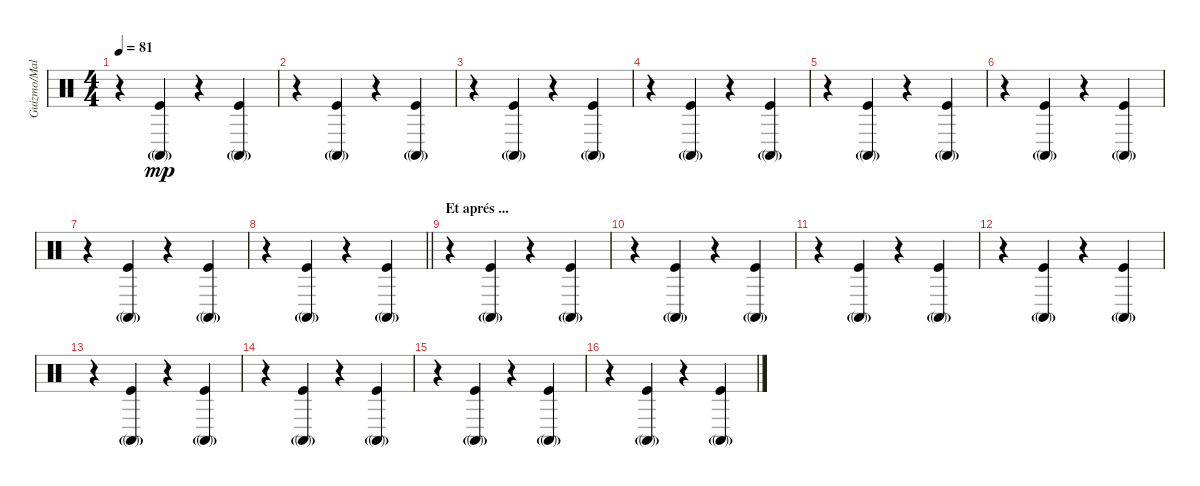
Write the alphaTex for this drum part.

\track ("Guizmo/Mali" "Guizmo/Mal") {instrument percussion}
\staff {score}
\articulation defaults
\ts (4 4)
\tempo 81
\clef neutral
\ks c
r.4{dy mp} ("Kick (hit)" "Conga high (mute)"{g}).4 r.4 ("Kick (hit)" "Conga high (mute)"{g}).4 |
r.4 ("Kick (hit)" "Conga high (mute)"{g}).4 r.4 ("Kick (hit)" "Conga high (mute)"{g}).4 |
r.4 ("Kick (hit)" "Conga high (mute)"{g}).4 r.4 ("Kick (hit)" "Conga high (mute)"{g}).4 |
r.4 ("Kick (hit)" "Conga high (mute)"{g}).4 r.4 ("Kick (hit)" "Conga high (mute)"{g}).4 |
r.4 ("Kick (hit)" "Conga high (mute)"{g}).4 r.4 ("Kick (hit)" "Conga high (mute)"{g}).4 |
r.4 ("Kick (hit)" "Conga high (mute)"{g}).4 r.4 ("Kick (hit)" "Conga high (mute)"{g}).4 |
r.4 ("Kick (hit)" "Conga high (mute)"{g}).4 r.4 ("Kick (hit)" "Conga high (mute)"{g}).4 |
\barLineRight lightlight
r.4 ("Kick (hit)" "Conga high (mute)"{g}).4 r.4 ("Kick (hit)" "Conga high (mute)"{g}).4 |
\section ("" "Et aprés ...")
r.4 ("Kick (hit)" "Conga high (mute)"{g}).4 r.4 ("Kick (hit)" "Conga high (mute)"{g}).4 |
r.4 ("Kick (hit)" "Conga high (mute)"{g}).4 r.4 ("Kick (hit)" "Conga high (mute)"{g}).4 |
r.4 ("Kick (hit)" "Conga high (mute)"{g}).4 r.4 ("Kick (hit)" "Conga high (mute)"{g}).4 |
r.4 ("Kick (hit)" "Conga high (mute)"{g}).4 r.4 ("Kick (hit)" "Conga high (mute)"{g}).4 |
r.4 ("Kick (hit)" "Conga high (mute)"{g}).4 r.4 ("Kick (hit)" "Conga high (mute)"{g}).4 |
r.4 ("Kick (hit)" "Conga high (mute)"{g}).4 r.4 ("Kick (hit)" "Conga high (mute)"{g}).4 |
r.4 ("Kick (hit)" "Conga high (mute)"{g}).4 r.4 ("Kick (hit)" "Conga high (mute)"{g}).4 |
r.4 ("Kick (hit)" "Conga high (mute)"{g}).4 r.4 ("Kick (hit)" "Conga high (mute)"{g}).4
